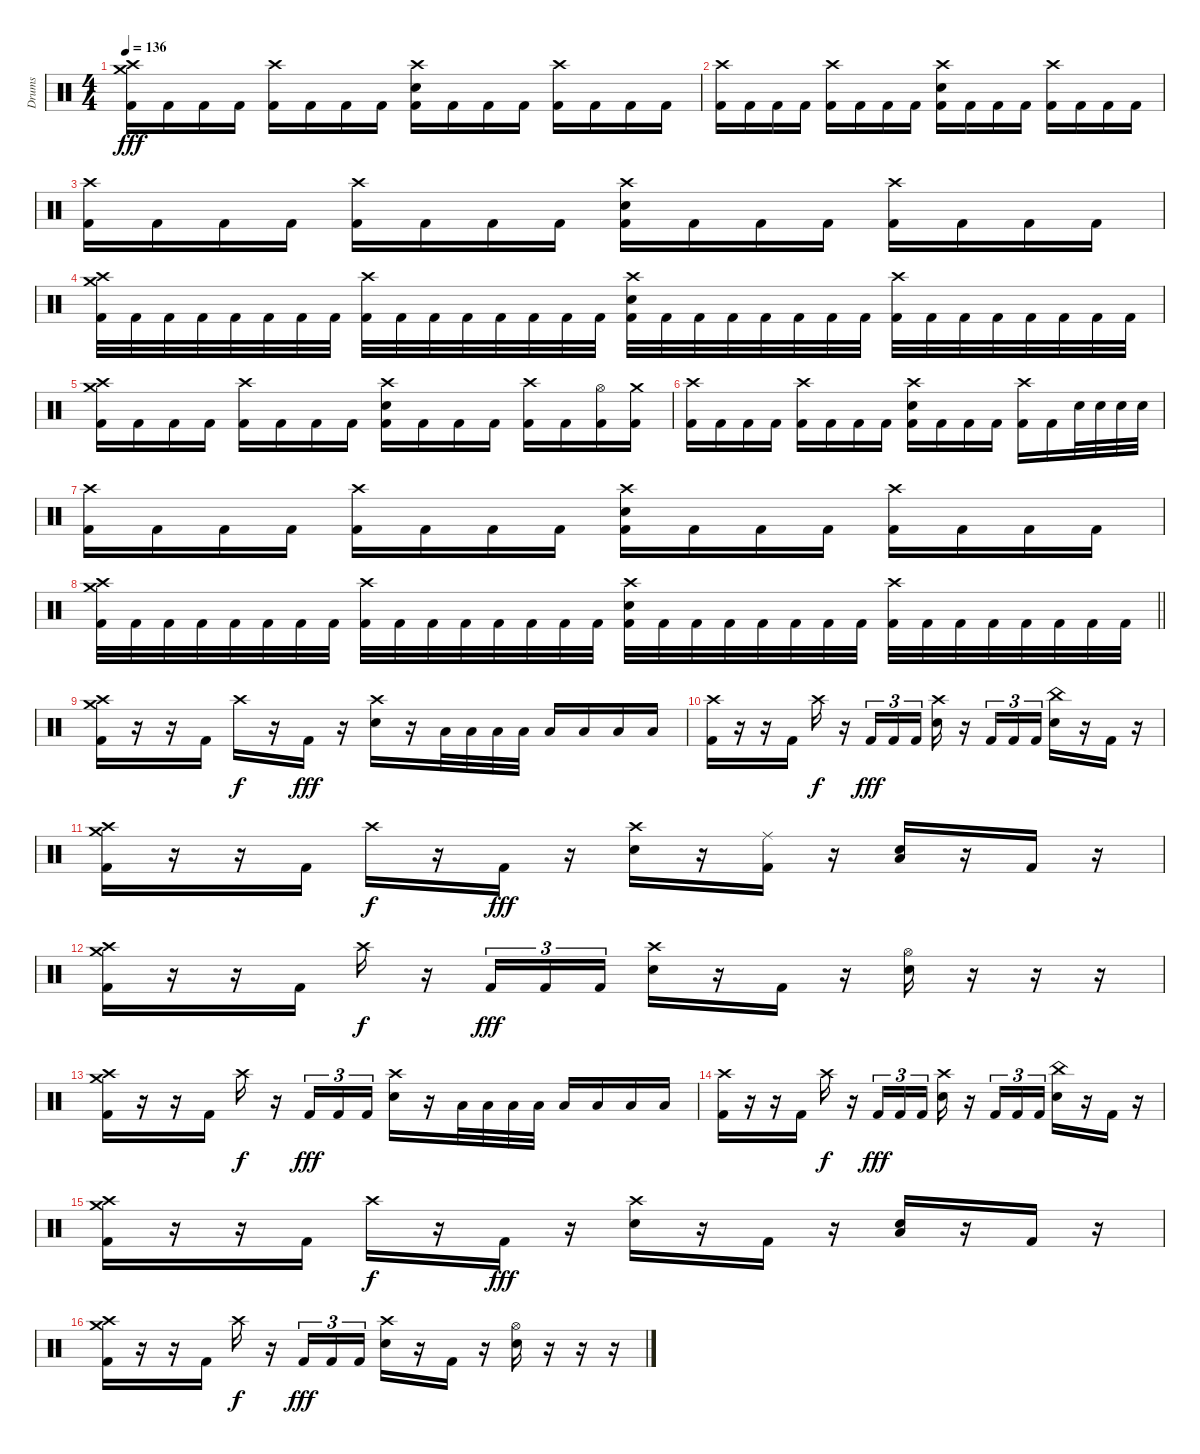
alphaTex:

\track ("Drums" "Drums") {instrument percussion}
\staff {score}
\articulation defaults
\ts (4 4)
\section ("" "")
\tempo 136
\clef neutral
\ks c
("Crash high (hit)" "Crash medium (hit)" "Kick (hit) 2").16{dy fff} "Kick (hit) 2".16 "Kick (hit) 2".16 "Kick (hit) 2".16 ("Crash high (hit)" "Kick (hit) 2").16 "Kick (hit) 2".16 "Kick (hit) 2".16 "Kick (hit) 2".16 ("Crash high (hit)" "Electric Snare (hit)" "Kick (hit) 2").16 "Kick (hit) 2".16 "Kick (hit) 2".16 "Kick (hit) 2".16 ("Crash high (hit)" "Kick (hit) 2").16 "Kick (hit) 2".16 "Kick (hit) 2".16 "Kick (hit) 2".16 |
("Crash high (hit)" "Kick (hit) 2").16 "Kick (hit) 2".16 "Kick (hit) 2".16 "Kick (hit) 2".16 ("Crash high (hit)" "Kick (hit) 2").16 "Kick (hit) 2".16 "Kick (hit) 2".16 "Kick (hit) 2".16 ("Crash high (hit)" "Electric Snare (hit)" "Kick (hit) 2").16 "Kick (hit) 2".16 "Kick (hit) 2".16 "Kick (hit) 2".16 ("Crash high (hit)" "Kick (hit) 2").16 "Kick (hit) 2".16 "Kick (hit) 2".16 "Kick (hit) 2".16 |
("Crash high (hit)" "Kick (hit) 2").16 "Kick (hit) 2".16 "Kick (hit) 2".16 "Kick (hit) 2".16 ("Crash high (hit)" "Kick (hit) 2").16 "Kick (hit) 2".16 "Kick (hit) 2".16 "Kick (hit) 2".16 ("Crash high (hit)" "Electric Snare (hit)" "Kick (hit) 2").16 "Kick (hit) 2".16 "Kick (hit) 2".16 "Kick (hit) 2".16 ("Crash high (hit)" "Kick (hit) 2").16 "Kick (hit) 2".16 "Kick (hit) 2".16 "Kick (hit) 2".16 |
("Crash high (hit)" "Crash medium (hit)" "Kick (hit) 2").32 "Kick (hit) 2".32 "Kick (hit) 2".32 "Kick (hit) 2".32 "Kick (hit) 2".32 "Kick (hit) 2".32 "Kick (hit) 2".32 "Kick (hit) 2".32 ("Crash high (hit)" "Kick (hit) 2").32 "Kick (hit) 2".32 "Kick (hit) 2".32 "Kick (hit) 2".32 "Kick (hit) 2".32 "Kick (hit) 2".32 "Kick (hit) 2".32 "Kick (hit) 2".32 ("Crash high (hit)" "Electric Snare (hit)" "Kick (hit) 2").32 "Kick (hit) 2".32 "Kick (hit) 2".32 "Kick (hit) 2".32 "Kick (hit) 2".32 "Kick (hit) 2".32 "Kick (hit) 2".32 "Kick (hit) 2".32 ("Crash high (hit)" "Kick (hit) 2").32 "Kick (hit) 2".32 "Kick (hit) 2".32 "Kick (hit) 2".32 "Kick (hit) 2".32 "Kick (hit) 2".32 "Kick (hit) 2".32 "Kick (hit) 2".32 |
("Crash high (hit)" "Crash medium (hit)" "Kick (hit) 2").16 "Kick (hit) 2".16 "Kick (hit) 2".16 "Kick (hit) 2".16 ("Crash high (hit)" "Kick (hit) 2").16 "Kick (hit) 2".16 "Kick (hit) 2".16 "Kick (hit) 2".16 ("Crash high (hit)" "Electric Snare (hit)" "Kick (hit) 2").16 "Kick (hit) 2".16 "Kick (hit) 2".16 "Kick (hit) 2".16 ("Crash high (hit)" "Kick (hit) 2").16 "Kick (hit) 2".16 ("Hi-Hat (open)" "Kick (hit) 2").16 ("Crash medium (hit)" "Kick (hit) 2").16 |
("Crash high (hit)" "Kick (hit) 2").16 "Kick (hit) 2".16 "Kick (hit) 2".16 "Kick (hit) 2".16 ("Crash high (hit)" "Kick (hit) 2").16 "Kick (hit) 2".16 "Kick (hit) 2".16 "Kick (hit) 2".16 ("Crash high (hit)" "Electric Snare (hit)" "Kick (hit) 2").16 "Kick (hit) 2".16 "Kick (hit) 2".16 "Kick (hit) 2".16 ("Crash high (hit)" "Kick (hit) 2").16 "Kick (hit) 2".16 "Electric Snare (hit)".32 "Electric Snare (hit)".32 "Electric Snare (hit)".32 "Electric Snare (hit)".32 |
("Crash high (hit)" "Kick (hit) 2").16 "Kick (hit) 2".16 "Kick (hit) 2".16 "Kick (hit) 2".16 ("Crash high (hit)" "Kick (hit) 2").16 "Kick (hit) 2".16 "Kick (hit) 2".16 "Kick (hit) 2".16 ("Crash high (hit)" "Electric Snare (hit)" "Kick (hit) 2").16 "Kick (hit) 2".16 "Kick (hit) 2".16 "Kick (hit) 2".16 ("Crash high (hit)" "Kick (hit) 2").16 "Kick (hit) 2".16 "Kick (hit) 2".16 "Kick (hit) 2".16 |
\barLineRight lightlight
("Crash high (hit)" "Crash medium (hit)" "Kick (hit) 2").32 "Kick (hit) 2".32 "Kick (hit) 2".32 "Kick (hit) 2".32 "Kick (hit) 2".32 "Kick (hit) 2".32 "Kick (hit) 2".32 "Kick (hit) 2".32 ("Crash high (hit)" "Kick (hit) 2").32 "Kick (hit) 2".32 "Kick (hit) 2".32 "Kick (hit) 2".32 "Kick (hit) 2".32 "Kick (hit) 2".32 "Kick (hit) 2".32 "Kick (hit) 2".32 ("Crash high (hit)" "Electric Snare (hit)" "Kick (hit) 2").32 "Kick (hit) 2".32 "Kick (hit) 2".32 "Kick (hit) 2".32 "Kick (hit) 2".32 "Kick (hit) 2".32 "Kick (hit) 2".32 "Kick (hit) 2".32 ("Crash high (hit)" "Kick (hit) 2").32 "Kick (hit) 2".32 "Kick (hit) 2".32 "Kick (hit) 2".32 "Kick (hit) 2".32 "Kick (hit) 2".32 "Kick (hit) 2".32 "Kick (hit) 2".32 |
\section ("" "")
("Crash high (hit)" "Crash medium (hit)" "Kick (hit) 2").16 r.16 r.16 "Kick (hit) 2".16 "Crash high (hit)".16{dy f} r.16 "Kick (hit) 2".16{dy fff} r.16 ("Crash high (hit)" "Electric Snare (hit)").16 r.16 "Low Tom (hit)".32 "Low Tom (hit)".32 "Low Tom (hit)".32 "Low Tom (hit)".32 "Low Tom (hit)".16 "Low Tom (hit)".16 "Low Floor Tom (hit)".16 "Low Floor Tom (hit)".16 |
("Crash high (hit)" "Kick (hit) 2").16 r.16 r.16 "Kick (hit) 2".16 "Crash high (hit)".16{dy f} r.16 "Kick (hit) 2".16{tu (3 2) dy fff} "Kick (hit) 2".16{tu (3 2)} "Kick (hit) 2".16{tu (3 2)} ("Crash high (hit)" "Electric Snare (hit)").16 r.16 "Kick (hit) 2".16{tu (3 2)} "Kick (hit) 2".16{tu (3 2)} "Kick (hit) 2".16{tu (3 2)} ("China (hit)" "Electric Snare (hit)").16 r.16 "Kick (hit) 2".16 r.16 |
("Crash high (hit)" "Crash medium (hit)" "Kick (hit) 2").16 r.16 r.16 "Kick (hit) 2".16 "Crash high (hit)".16{dy f} r.16 "Kick (hit) 2".16{dy fff} r.16 ("Crash high (hit)" "Electric Snare (hit)").16 r.16 ("Ride (middle)" "Kick (hit) 2").16 r.16 ("Low Tom (hit)" "Electric Snare (hit)").16 r.16 "Kick (hit) 2".16 r.16 |
("Crash high (hit)" "Crash medium (hit)" "Kick (hit) 2").16 r.16 r.16 "Kick (hit) 2".16 "Crash high (hit)".16{dy f} r.16 "Kick (hit) 2".16{tu (3 2) dy fff} "Kick (hit) 2".16{tu (3 2)} "Kick (hit) 2".16{tu (3 2)} ("Crash high (hit)" "Electric Snare (hit)").16 r.16 "Kick (hit) 2".16 r.16 ("Hi-Hat (open)" "Electric Snare (hit)").16 r.16 r.16 r.16 |
("Crash high (hit)" "Crash medium (hit)" "Kick (hit) 2").16 r.16 r.16 "Kick (hit) 2".16 "Crash high (hit)".16{dy f} r.16 "Kick (hit) 2".16{tu (3 2) dy fff} "Kick (hit) 2".16{tu (3 2)} "Kick (hit) 2".16{tu (3 2)} ("Crash high (hit)" "Electric Snare (hit)").16 r.16 "Low Tom (hit)".32 "Low Tom (hit)".32 "Low Tom (hit)".32 "Low Tom (hit)".32 "Low Tom (hit)".16 "Low Tom (hit)".16 "Low Floor Tom (hit)".16 "Low Floor Tom (hit)".16 |
("Crash high (hit)" "Kick (hit) 2").16 r.16 r.16 "Kick (hit) 2".16 "Crash high (hit)".16{dy f} r.16 "Kick (hit) 2".16{tu (3 2) dy fff} "Kick (hit) 2".16{tu (3 2)} "Kick (hit) 2".16{tu (3 2)} ("Crash high (hit)" "Electric Snare (hit)").16 r.16 "Kick (hit) 2".16{tu (3 2)} "Kick (hit) 2".16{tu (3 2)} "Kick (hit) 2".16{tu (3 2)} ("China (hit)" "Electric Snare (hit)").16 r.16 "Kick (hit) 2".16 r.16 |
("Crash high (hit)" "Crash medium (hit)" "Kick (hit) 2").16 r.16 r.16 "Kick (hit) 2".16 "Crash high (hit)".16{dy f} r.16 "Kick (hit) 2".16{dy fff} r.16 ("Crash high (hit)" "Electric Snare (hit)").16 r.16 "Kick (hit) 2".16 r.16 ("Low Tom (hit)" "Electric Snare (hit)").16 r.16 "Kick (hit) 2".16 r.16 |
("Crash high (hit)" "Crash medium (hit)" "Kick (hit) 2").16 r.16 r.16 "Kick (hit) 2".16 "Crash high (hit)".16{dy f} r.16 "Kick (hit) 2".16{tu (3 2) dy fff} "Kick (hit) 2".16{tu (3 2)} "Kick (hit) 2".16{tu (3 2)} ("Crash high (hit)" "Electric Snare (hit)").16 r.16 "Kick (hit) 2".16 r.16 ("Hi-Hat (open)" "Electric Snare (hit)").16 r.16 r.16 r.16
